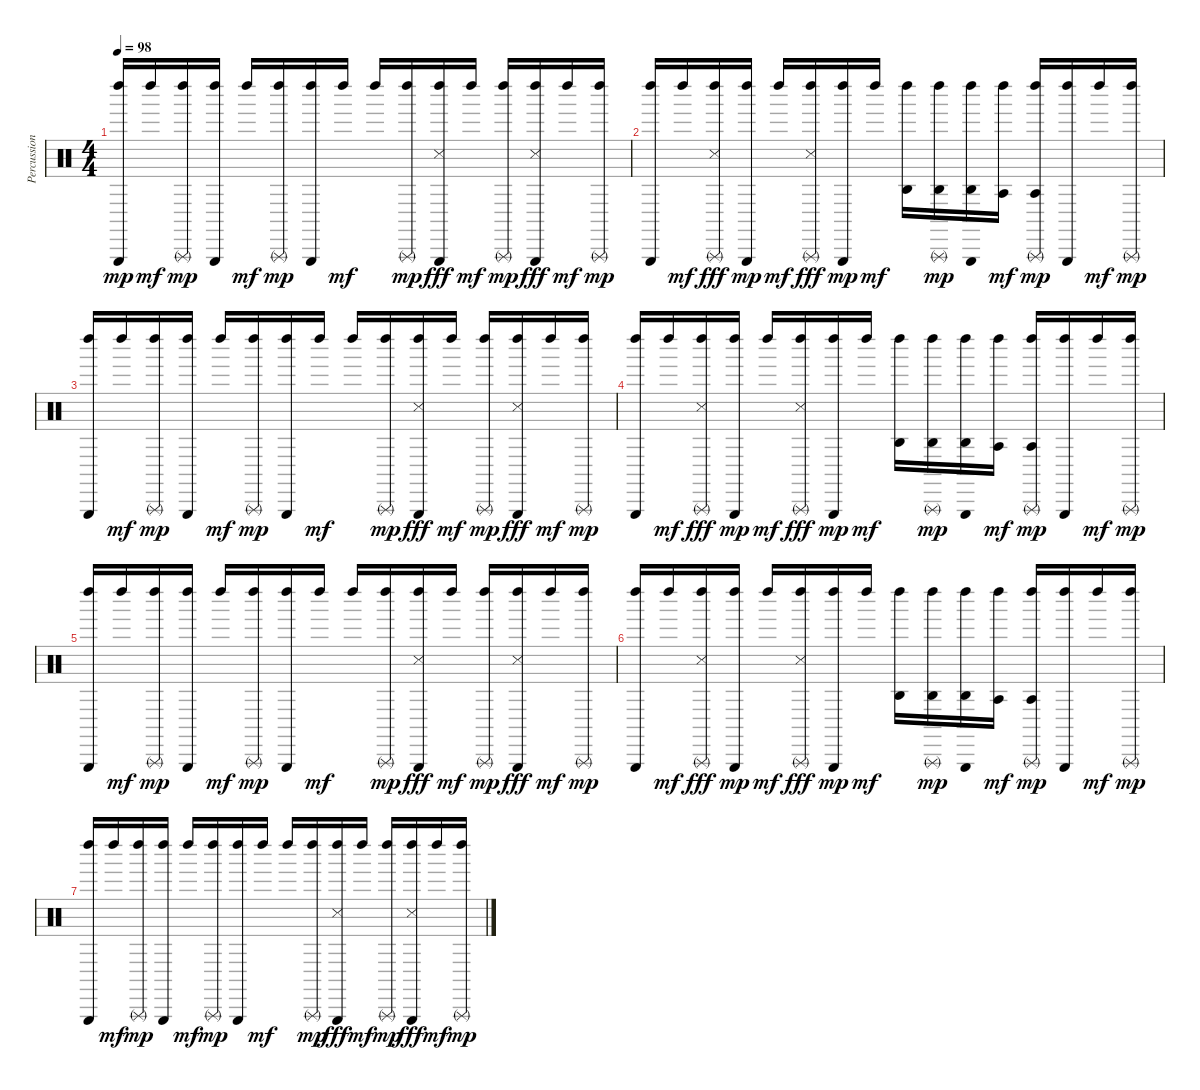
\track ("Percussions (Dr-0)" "Percussion") {instrument percussion}
\staff {score}
\articulation defaults
\ts (4 4)
\tempo 98
\clef neutral
\ks c
("Left Maraca (hit)" "Triangle (hit)").16{dy mp} "Left Maraca (hit)".16{dy mf} ("Left Maraca (hit)" "Triangle (rnute)").16{dy mp} ("Left Maraca (hit)" "Triangle (hit)").16 "Left Maraca (hit)".16{dy mf} ("Left Maraca (hit)" "Triangle (rnute)").16{dy mp} ("Left Maraca (hit)" "Triangle (hit)").16 "Left Maraca (hit)".16{dy mf} "Left Maraca (hit)".16 ("Left Maraca (hit)" "Triangle (rnute)").16{dy mp} ("Left Maraca (hit)" "Triangle (hit)" "Snare (side stick) 3").16{dy fff} "Left Maraca (hit)".16{dy mf} ("Left Maraca (hit)" "Triangle (rnute)").16{dy mp} ("Left Maraca (hit)" "Triangle (hit)" "Snare (side stick) 3").16{dy fff} "Left Maraca (hit)".16{dy mf} ("Left Maraca (hit)" "Triangle (rnute)").16{dy mp} |
("Left Maraca (hit)" "Triangle (hit)").16 "Left Maraca (hit)".16{dy mf} ("Left Maraca (hit)" "Triangle (rnute)" "Snare (side stick) 3").16{dy fff} ("Left Maraca (hit)" "Triangle (hit)").16{dy mp} "Left Maraca (hit)".16{dy mf} ("Left Maraca (hit)" "Triangle (rnute)" "Snare (side stick) 3").16{dy fff} ("Left Maraca (hit)" "Triangle (hit)").16{dy mp} "Left Maraca (hit)".16{dy mf} ("Left Maraca (hit)" "Agogo high (hit)").16 ("Left Maraca (hit)" "Triangle (rnute)" "Agogo high (hit)").16{dy mp} ("Left Maraca (hit)" "Triangle (hit)" "Agogo high (hit)").16 ("Left Maraca (hit)" "Agogo tow (hit)").16{dy mf} ("Left Maraca (hit)" "Triangle (rnute)" "Agogo tow (hit)").16{dy mp} ("Left Maraca (hit)" "Triangle (hit)").16 "Left Maraca (hit)".16{dy mf} ("Left Maraca (hit)" "Triangle (rnute)").16{dy mp} |
("Left Maraca (hit)" "Triangle (hit)").16 "Left Maraca (hit)".16{dy mf} ("Left Maraca (hit)" "Triangle (rnute)").16{dy mp} ("Left Maraca (hit)" "Triangle (hit)").16 "Left Maraca (hit)".16{dy mf} ("Left Maraca (hit)" "Triangle (rnute)").16{dy mp} ("Left Maraca (hit)" "Triangle (hit)").16 "Left Maraca (hit)".16{dy mf} "Left Maraca (hit)".16 ("Left Maraca (hit)" "Triangle (rnute)").16{dy mp} ("Left Maraca (hit)" "Triangle (hit)" "Snare (side stick) 3").16{dy fff} "Left Maraca (hit)".16{dy mf} ("Left Maraca (hit)" "Triangle (rnute)").16{dy mp} ("Left Maraca (hit)" "Triangle (hit)" "Snare (side stick) 3").16{dy fff} "Left Maraca (hit)".16{dy mf} ("Left Maraca (hit)" "Triangle (rnute)").16{dy mp} |
("Left Maraca (hit)" "Triangle (hit)").16{volume 5} "Left Maraca (hit)".16{dy mf} ("Left Maraca (hit)" "Triangle (rnute)" "Snare (side stick) 3").16{dy fff} ("Left Maraca (hit)" "Triangle (hit)").16{dy mp} "Left Maraca (hit)".16{dy mf} ("Left Maraca (hit)" "Triangle (rnute)" "Snare (side stick) 3").16{dy fff} ("Left Maraca (hit)" "Triangle (hit)").16{dy mp} "Left Maraca (hit)".16{dy mf} ("Left Maraca (hit)" "Agogo high (hit)").16 ("Left Maraca (hit)" "Triangle (rnute)" "Agogo high (hit)").16{dy mp} ("Left Maraca (hit)" "Triangle (hit)" "Agogo high (hit)").16 ("Left Maraca (hit)" "Agogo tow (hit)").16{dy mf} ("Left Maraca (hit)" "Triangle (rnute)" "Agogo tow (hit)").16{dy mp} ("Left Maraca (hit)" "Triangle (hit)").16 "Left Maraca (hit)".16{dy mf} ("Left Maraca (hit)" "Triangle (rnute)").16{dy mp} |
("Left Maraca (hit)" "Triangle (hit)").16 "Left Maraca (hit)".16{dy mf} ("Left Maraca (hit)" "Triangle (rnute)").16{dy mp} ("Left Maraca (hit)" "Triangle (hit)").16 "Left Maraca (hit)".16{dy mf} ("Left Maraca (hit)" "Triangle (rnute)").16{dy mp} ("Left Maraca (hit)" "Triangle (hit)").16 "Left Maraca (hit)".16{dy mf} "Left Maraca (hit)".16 ("Left Maraca (hit)" "Triangle (rnute)").16{dy mp} ("Left Maraca (hit)" "Triangle (hit)" "Snare (side stick) 3").16{dy fff} "Left Maraca (hit)".16{dy mf} ("Left Maraca (hit)" "Triangle (rnute)").16{dy mp} ("Left Maraca (hit)" "Triangle (hit)" "Snare (side stick) 3").16{dy fff} "Left Maraca (hit)".16{dy mf} ("Left Maraca (hit)" "Triangle (rnute)").16{dy mp} |
("Left Maraca (hit)" "Triangle (hit)").16{volume 0} "Left Maraca (hit)".16{dy mf} ("Left Maraca (hit)" "Triangle (rnute)" "Snare (side stick) 3").16{dy fff} ("Left Maraca (hit)" "Triangle (hit)").16{dy mp} "Left Maraca (hit)".16{dy mf} ("Left Maraca (hit)" "Triangle (rnute)" "Snare (side stick) 3").16{dy fff} ("Left Maraca (hit)" "Triangle (hit)").16{dy mp} "Left Maraca (hit)".16{dy mf} ("Left Maraca (hit)" "Agogo high (hit)").16 ("Left Maraca (hit)" "Triangle (rnute)" "Agogo high (hit)").16{dy mp} ("Left Maraca (hit)" "Triangle (hit)" "Agogo high (hit)").16 ("Left Maraca (hit)" "Agogo tow (hit)").16{dy mf} ("Left Maraca (hit)" "Triangle (rnute)" "Agogo tow (hit)").16{dy mp} ("Left Maraca (hit)" "Triangle (hit)").16 "Left Maraca (hit)".16{dy mf} ("Left Maraca (hit)" "Triangle (rnute)").16{dy mp} |
("Left Maraca (hit)" "Triangle (hit)").16 "Left Maraca (hit)".16{dy mf} ("Left Maraca (hit)" "Triangle (rnute)").16{dy mp} ("Left Maraca (hit)" "Triangle (hit)").16 "Left Maraca (hit)".16{dy mf} ("Left Maraca (hit)" "Triangle (rnute)").16{dy mp} ("Left Maraca (hit)" "Triangle (hit)").16 "Left Maraca (hit)".16{dy mf} "Left Maraca (hit)".16 ("Left Maraca (hit)" "Triangle (rnute)").16{dy mp} ("Left Maraca (hit)" "Triangle (hit)" "Snare (side stick) 3").16{dy fff} "Left Maraca (hit)".16{dy mf} ("Left Maraca (hit)" "Triangle (rnute)").16{dy mp} ("Left Maraca (hit)" "Triangle (hit)" "Snare (side stick) 3").16{dy fff} "Left Maraca (hit)".16{dy mf} ("Left Maraca (hit)" "Triangle (rnute)").16{dy mp}
